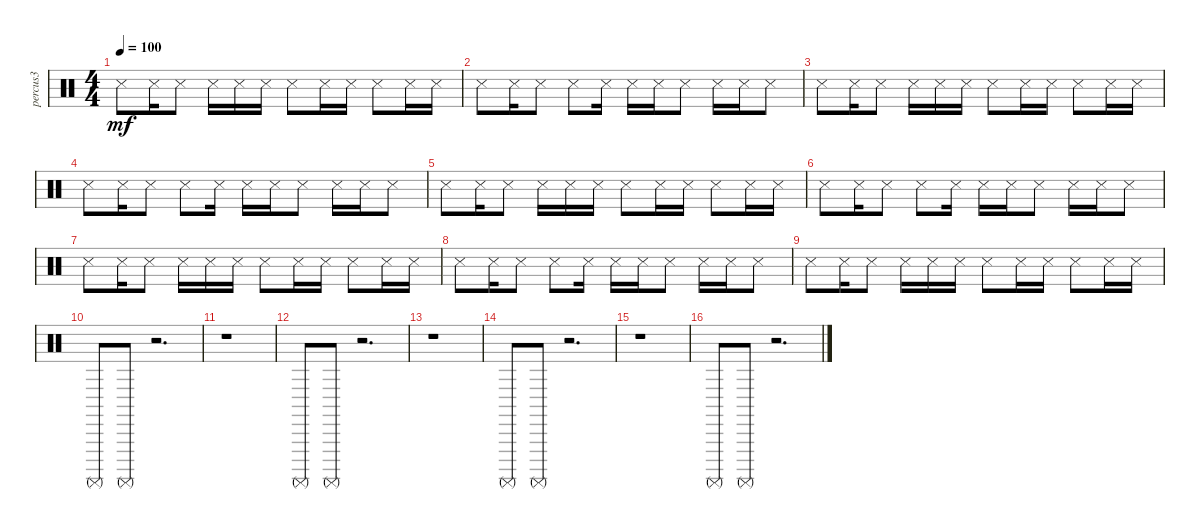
\track ("percus3" "percus3") {instrument percussion}
\staff {score}
\articulation defaults
\ts (4 4)
\tempo 100
\clef neutral
\ks c "Metronome (hit)".8{dy mf} "Metronome (hit)".16 "Metronome (hit)".8 "Metronome (hit)".16 "Metronome (hit)".16 "Metronome (hit)".16 "Metronome (hit)".8 "Metronome (hit)".16 "Metronome (hit)".16 "Metronome (hit)".8 "Metronome (hit)".16 "Metronome (hit)".16
|
"Metronome (hit)".8 "Metronome (hit)".16 "Metronome (hit)".8 "Metronome (hit)".8 "Metronome (hit)".16 "Metronome (hit)".16 "Metronome (hit)".16 "Metronome (hit)".8 "Metronome (hit)".16 "Metronome (hit)".16 "Metronome (hit)".8 |
"Metronome (hit)".8 "Metronome (hit)".16 "Metronome (hit)".8 "Metronome (hit)".16 "Metronome (hit)".16 "Metronome (hit)".16 "Metronome (hit)".8 "Metronome (hit)".16 "Metronome (hit)".16 "Metronome (hit)".8 "Metronome (hit)".16 "Metronome (hit)".16 |
"Metronome (hit)".8 "Metronome (hit)".16 "Metronome (hit)".8 "Metronome (hit)".8 "Metronome (hit)".16 "Metronome (hit)".16 "Metronome (hit)".16 "Metronome (hit)".8 "Metronome (hit)".16 "Metronome (hit)".16 "Metronome (hit)".8 |
"Metronome (hit)".8 "Metronome (hit)".16 "Metronome (hit)".8 "Metronome (hit)".16 "Metronome (hit)".16 "Metronome (hit)".16 "Metronome (hit)".8 "Metronome (hit)".16 "Metronome (hit)".16 "Metronome (hit)".8 "Metronome (hit)".16 "Metronome (hit)".16 |
"Metronome (hit)".8 "Metronome (hit)".16 "Metronome (hit)".8 "Metronome (hit)".8 "Metronome (hit)".16 "Metronome (hit)".16 "Metronome (hit)".16 "Metronome (hit)".8 "Metronome (hit)".16 "Metronome (hit)".16 "Metronome (hit)".8 |
"Metronome (hit)".8 "Metronome (hit)".16 "Metronome (hit)".8 "Metronome (hit)".16 "Metronome (hit)".16 "Metronome (hit)".16 "Metronome (hit)".8 "Metronome (hit)".16 "Metronome (hit)".16 "Metronome (hit)".8 "Metronome (hit)".16 "Metronome (hit)".16 |
"Metronome (hit)".8 "Metronome (hit)".16 "Metronome (hit)".8 "Metronome (hit)".8 "Metronome (hit)".16 "Metronome (hit)".16 "Metronome (hit)".16 "Metronome (hit)".8 "Metronome (hit)".16 "Metronome (hit)".16 "Metronome (hit)".8 |
"Metronome (hit)".8 "Metronome (hit)".16 "Metronome (hit)".8 "Metronome (hit)".16 "Metronome (hit)".16 "Metronome (hit)".16 "Metronome (hit)".8 "Metronome (hit)".16 "Metronome (hit)".16 "Metronome (hit)".8 "Metronome (hit)".16 "Metronome (hit)".16 |
"Surdo (mute)".8 "Surdo (mute)".8 r.2{d} |
r.1 |
"Surdo (mute)".8 "Surdo (mute)".8 r.2{d} |
r.1 |
"Surdo (mute)".8 "Surdo (mute)".8 r.2{d} |
r.1 |
"Surdo (mute)".8 "Surdo (mute)".8 r.2{d}
